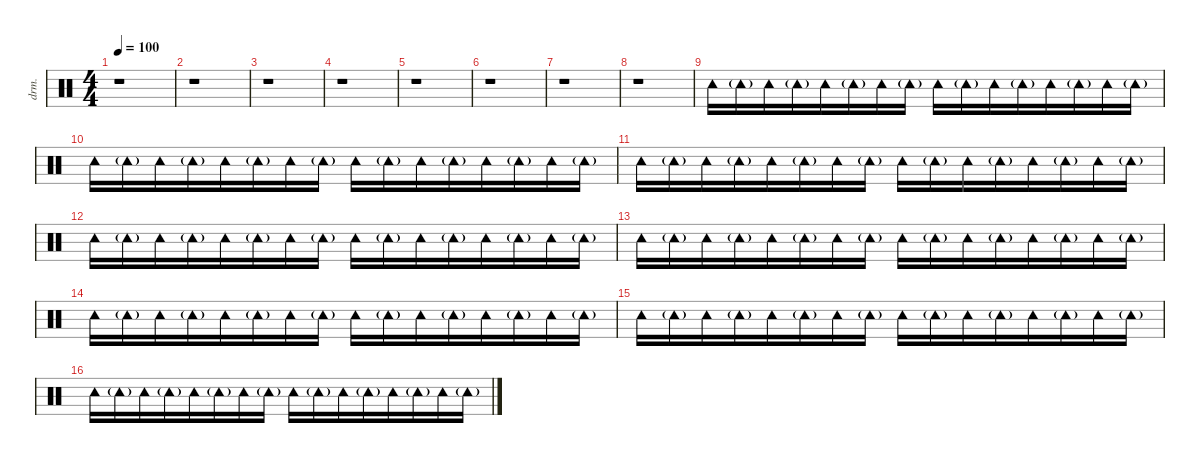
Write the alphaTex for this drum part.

\defaultSystemsLayout 4
\hideDynamics
\bracketExtendMode nobrackets
\otherSystemsTrackNameOrientation horizontal
\track ("Aux. Percussion" "drm.") {instrument percussion}
\staff {score}
\articulation defaults
\ts (4 4)
\beaming (8 4 4)
\tempo 100
\clef neutral
\ks c
r.1{dy mf beam Down} |
r.1{beam Down} |
r.1{beam Down} |
r.1{beam Down} |
r.1{beam Down} |
r.1{beam Down} |
r.1{beam Down} |
r.1{beam Down} |
"Tambourine (hit)".16{beam Down} "Tambourine (hit)"{g}.16{dy mp beam Down} "Tambourine (hit)".16{beam Down} "Tambourine (hit)"{g}.16{beam Down} "Tambourine (hit)".16{dy mf beam Down} "Tambourine (hit)"{g}.16{dy mp beam Down} "Tambourine (hit)".16{beam Down} "Tambourine (hit)"{g}.16{beam Down} "Tambourine (hit)".16{dy mf beam Down} "Tambourine (hit)"{g}.16{dy mp beam Down} "Tambourine (hit)".16{beam Down} "Tambourine (hit)"{g}.16{beam Down} "Tambourine (hit)".16{dy mf beam Down} "Tambourine (hit)"{g}.16{dy mp beam Down} "Tambourine (hit)".16{beam Down} "Tambourine (hit)"{g}.16{beam Down} |
"Tambourine (hit)".16{dy mf beam Down} "Tambourine (hit)"{g}.16{dy mp beam Down} "Tambourine (hit)".16{beam Down} "Tambourine (hit)"{g}.16{beam Down} "Tambourine (hit)".16{dy mf beam Down} "Tambourine (hit)"{g}.16{dy mp beam Down} "Tambourine (hit)".16{beam Down} "Tambourine (hit)"{g}.16{beam Down} "Tambourine (hit)".16{dy mf beam Down} "Tambourine (hit)"{g}.16{dy mp beam Down} "Tambourine (hit)".16{beam Down} "Tambourine (hit)"{g}.16{beam Down} "Tambourine (hit)".16{dy mf beam Down} "Tambourine (hit)"{g}.16{dy mp beam Down} "Tambourine (hit)".16{beam Down} "Tambourine (hit)"{g}.16{beam Down} |
"Tambourine (hit)".16{dy mf beam Down} "Tambourine (hit)"{g}.16{dy mp beam Down} "Tambourine (hit)".16{beam Down} "Tambourine (hit)"{g}.16{beam Down} "Tambourine (hit)".16{dy mf beam Down} "Tambourine (hit)"{g}.16{dy mp beam Down} "Tambourine (hit)".16{beam Down} "Tambourine (hit)"{g}.16{beam Down} "Tambourine (hit)".16{dy mf beam Down} "Tambourine (hit)"{g}.16{dy mp beam Down} "Tambourine (hit)".16{beam Down} "Tambourine (hit)"{g}.16{beam Down} "Tambourine (hit)".16{dy mf beam Down} "Tambourine (hit)"{g}.16{dy mp beam Down} "Tambourine (hit)".16{beam Down} "Tambourine (hit)"{g}.16{beam Down} |
"Tambourine (hit)".16{dy mf beam Down} "Tambourine (hit)"{g}.16{dy mp beam Down} "Tambourine (hit)".16{beam Down} "Tambourine (hit)"{g}.16{beam Down} "Tambourine (hit)".16{dy mf beam Down} "Tambourine (hit)"{g}.16{dy mp beam Down} "Tambourine (hit)".16{beam Down} "Tambourine (hit)"{g}.16{beam Down} "Tambourine (hit)".16{dy mf beam Down} "Tambourine (hit)"{g}.16{dy mp beam Down} "Tambourine (hit)".16{beam Down} "Tambourine (hit)"{g}.16{beam Down} "Tambourine (hit)".16{dy mf beam Down} "Tambourine (hit)"{g}.16{dy mp beam Down} "Tambourine (hit)".16{beam Down} "Tambourine (hit)"{g}.16{beam Down} |
"Tambourine (hit)".16{dy mf beam Down} "Tambourine (hit)"{g}.16{dy mp beam Down} "Tambourine (hit)".16{beam Down} "Tambourine (hit)"{g}.16{beam Down} "Tambourine (hit)".16{dy mf beam Down} "Tambourine (hit)"{g}.16{dy mp beam Down} "Tambourine (hit)".16{beam Down} "Tambourine (hit)"{g}.16{beam Down} "Tambourine (hit)".16{dy mf beam Down} "Tambourine (hit)"{g}.16{dy mp beam Down} "Tambourine (hit)".16{beam Down} "Tambourine (hit)"{g}.16{beam Down} "Tambourine (hit)".16{dy mf beam Down} "Tambourine (hit)"{g}.16{dy mp beam Down} "Tambourine (hit)".16{beam Down} "Tambourine (hit)"{g}.16{beam Down} |
"Tambourine (hit)".16{dy mf beam Down} "Tambourine (hit)"{g}.16{dy mp beam Down} "Tambourine (hit)".16{beam Down} "Tambourine (hit)"{g}.16{beam Down} "Tambourine (hit)".16{dy mf beam Down} "Tambourine (hit)"{g}.16{dy mp beam Down} "Tambourine (hit)".16{beam Down} "Tambourine (hit)"{g}.16{beam Down} "Tambourine (hit)".16{dy mf beam Down} "Tambourine (hit)"{g}.16{dy mp beam Down} "Tambourine (hit)".16{beam Down} "Tambourine (hit)"{g}.16{beam Down} "Tambourine (hit)".16{dy mf beam Down} "Tambourine (hit)"{g}.16{dy mp beam Down} "Tambourine (hit)".16{beam Down} "Tambourine (hit)"{g}.16{beam Down} |
"Tambourine (hit)".16{dy mf beam Down} "Tambourine (hit)"{g}.16{dy mp beam Down} "Tambourine (hit)".16{beam Down} "Tambourine (hit)"{g}.16{beam Down} "Tambourine (hit)".16{dy mf beam Down} "Tambourine (hit)"{g}.16{dy mp beam Down} "Tambourine (hit)".16{beam Down} "Tambourine (hit)"{g}.16{beam Down} "Tambourine (hit)".16{dy mf beam Down} "Tambourine (hit)"{g}.16{dy mp beam Down} "Tambourine (hit)".16{beam Down} "Tambourine (hit)"{g}.16{beam Down} "Tambourine (hit)".16{dy mf beam Down} "Tambourine (hit)"{g}.16{dy mp beam Down} "Tambourine (hit)".16{beam Down} "Tambourine (hit)"{g}.16{beam Down} |
"Tambourine (hit)".16{dy mf beam Down} "Tambourine (hit)"{g}.16{dy mp beam Down} "Tambourine (hit)".16{beam Down} "Tambourine (hit)"{g}.16{beam Down} "Tambourine (hit)".16{dy mf beam Down} "Tambourine (hit)"{g}.16{dy mp beam Down} "Tambourine (hit)".16{beam Down} "Tambourine (hit)"{g}.16{beam Down} "Tambourine (hit)".16{dy mf beam Down} "Tambourine (hit)"{g}.16{dy mp beam Down} "Tambourine (hit)".16{beam Down} "Tambourine (hit)"{g}.16{beam Down} "Tambourine (hit)".16{dy mf beam Down} "Tambourine (hit)"{g}.16{dy mp beam Down} "Tambourine (hit)".16{beam Down} "Tambourine (hit)"{g}.16{beam Down}
